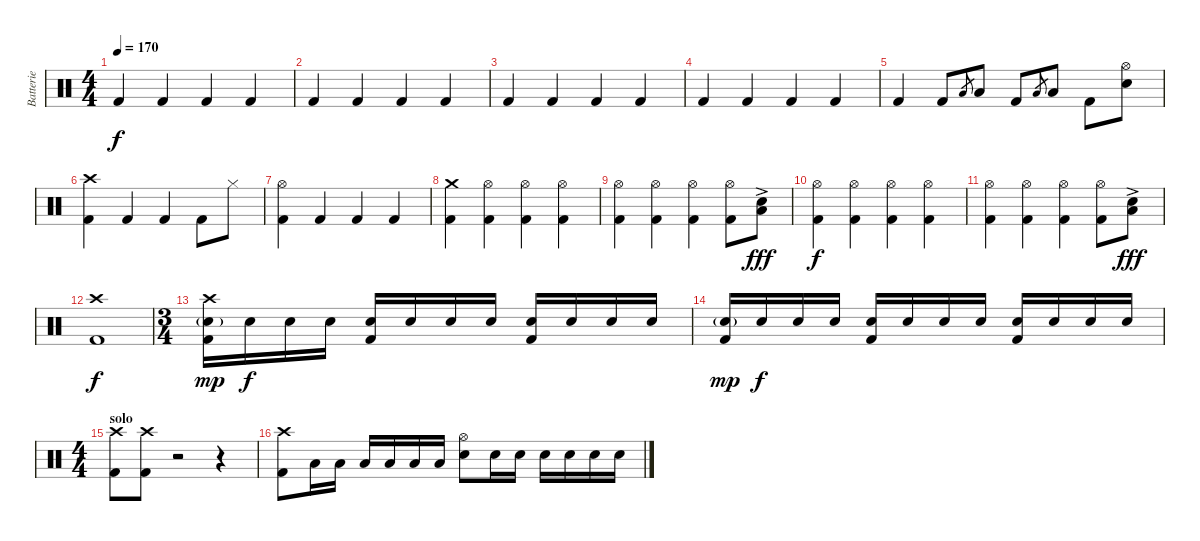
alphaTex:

\track ("Batterie" "Batterie") {instrument percussion}
\staff {score}
\articulation defaults
\ts (4 4)
\tempo 170
\clef neutral
\ks c "Kick (hit) 2".4{dy f} "Kick (hit) 2".4 "Kick (hit) 2".4 "Kick (hit) 2".4
|
"Kick (hit) 2".4 "Kick (hit) 2".4 "Kick (hit) 2".4 "Kick (hit) 2".4 |
"Kick (hit) 2".4 "Kick (hit) 2".4 "Kick (hit) 2".4 "Kick (hit) 2".4 |
"Kick (hit) 2".4 "Kick (hit) 2".4 "Kick (hit) 2".4 "Kick (hit) 2".4 |
"Kick (hit) 2".4 "Kick (hit) 2".8 "Low Tom (hit)".8{gr} "Low Tom (hit)".8 "Kick (hit) 2".8 "Low Tom (hit)".8{gr} "Low Tom (hit)".8 "Kick (hit) 2".8 ("Hi-Hat (open)" "Electric Snare (hit)").8 |
("Crash high (hit)" "Kick (hit) 2").4 "Kick (hit) 2".4 "Kick (hit) 2".4 "Kick (hit) 2".8 "Hi-Hat (closed)".8 |
("Hi-Hat (open)" "Kick (hit) 2").4 "Kick (hit) 2".4 "Kick (hit) 2".4 "Kick (hit) 2".4 |
("Crash medium (hit)" "Kick (hit) 2").4 ("Hi-Hat (open)" "Kick (hit) 2").4 ("Hi-Hat (open)" "Kick (hit) 2").4 ("Hi-Hat (open)" "Kick (hit) 2").4 |
("Hi-Hat (open)" "Kick (hit) 2").4 ("Hi-Hat (open)" "Kick (hit) 2").4 ("Hi-Hat (open)" "Kick (hit) 2").4 ("Hi-Hat (open)" "Kick (hit) 2").8 ("Low Floor Tom (hit)" "Electric Snare (hit)"{ac}).8{dy fff} |
("Hi-Hat (open)" "Kick (hit) 2").4{dy f} ("Hi-Hat (open)" "Kick (hit) 2").4 ("Hi-Hat (open)" "Kick (hit) 2").4 ("Hi-Hat (open)" "Kick (hit) 2").4 |
("Hi-Hat (open)" "Kick (hit) 2").4 ("Hi-Hat (open)" "Kick (hit) 2").4 ("Hi-Hat (open)" "Kick (hit) 2").4 ("Hi-Hat (open)" "Kick (hit) 2").8 ("Low Floor Tom (hit)"{ac} "Electric Snare (hit)"{ac}).8{dy fff} |
("Crash high (hit)" "Kick (hit) 2").1{dy f} |
\ts (3 4)
("Crash high (hit)" "Electric Snare (hit)"{g} "Kick (hit) 2").16{dy mp} "Electric Snare (hit)".16{dy f} "Electric Snare (hit)".16 "Electric Snare (hit)".16 ("Electric Snare (hit)" "Kick (hit) 2").16 "Electric Snare (hit)".16 "Electric Snare (hit)".16 "Electric Snare (hit)".16 ("Electric Snare (hit)" "Kick (hit) 2").16 "Electric Snare (hit)".16 "Electric Snare (hit)".16 "Electric Snare (hit)".16 |
("Electric Snare (hit)"{g} "Kick (hit) 2").16{dy mp} "Electric Snare (hit)".16{dy f} "Electric Snare (hit)".16 "Electric Snare (hit)".16 ("Electric Snare (hit)" "Kick (hit) 2").16 "Electric Snare (hit)".16 "Electric Snare (hit)".16 "Electric Snare (hit)".16 ("Electric Snare (hit)" "Kick (hit) 2").16 "Electric Snare (hit)".16 "Electric Snare (hit)".16 "Electric Snare (hit)".16 |
\ts (4 4)
\section ("" "solo")
("Crash high (hit)" "Kick (hit) 2").8 ("Crash high (hit)" "Kick (hit) 2").8 r.2 r.4 |
("Crash high (hit)" "Kick (hit) 2").8 "Low Floor Tom (hit)".16 "Low Floor Tom (hit)".16 "Low Floor Tom (hit)".16 "Low Floor Tom (hit)".16 "Low Floor Tom (hit)".16 "Low Floor Tom (hit)".16 ("Hi-Hat (open)" "Electric Snare (hit)").8 "Electric Snare (hit)".16 "Electric Snare (hit)".16 "Electric Snare (hit)".16 "Electric Snare (hit)".16 "Electric Snare (hit)".16 "Electric Snare (hit)".16
